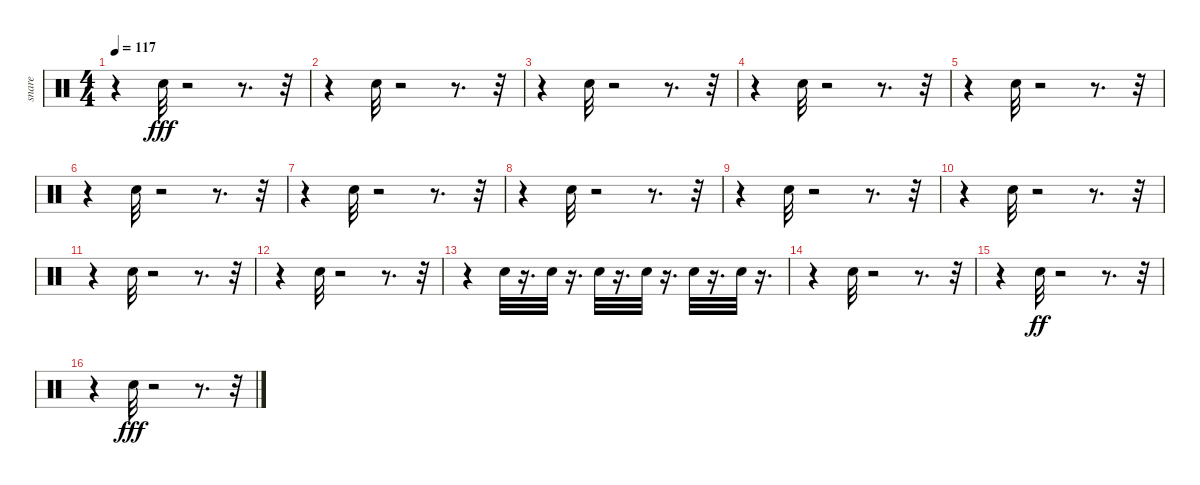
\track ("snare" "snare") {instrument percussion}
\staff {score}
\articulation defaults
\ts (4 4)
\tempo 117
\clef neutral
\ks c
r.4{dy fff} "Snare (hit) 2".32 r.2 r.8{d} r.32 |
r.4 "Snare (hit) 2".32 r.2 r.8{d} r.32 |
r.4 "Snare (hit) 2".32 r.2 r.8{d} r.32 |
r.4 "Snare (hit) 2".32 r.2 r.8{d} r.32 |
r.4 "Snare (hit) 2".32 r.2 r.8{d} r.32 |
r.4 "Snare (hit) 2".32 r.2 r.8{d} r.32 |
r.4 "Snare (hit) 2".32 r.2 r.8{d} r.32 |
r.4 "Snare (hit) 2".32 r.2 r.8{d} r.32 |
r.4 "Snare (hit) 2".32 r.2 r.8{d} r.32 |
r.4 "Snare (hit) 2".32 r.2 r.8{d} r.32 |
r.4 "Snare (hit) 2".32 r.2 r.8{d} r.32 |
r.4 "Snare (hit) 2".32 r.2 r.8{d} r.32 |
r.4 "Snare (hit) 2".32 r.16{d} "Snare (hit) 2".32 r.16{d} "Snare (hit) 2".32 r.16{d} "Snare (hit) 2".32 r.16{d} "Snare (hit) 2".32 r.16{d} "Snare (hit) 2".32 r.16{d} |
r.4 "Snare (hit) 2".32 r.2 r.8{d} r.32 |
r.4 "Snare (hit) 2".32{dy ff} r.2 r.8{d} r.32 |
r.4 "Snare (hit) 2".32{dy fff} r.2 r.8{d} r.32
